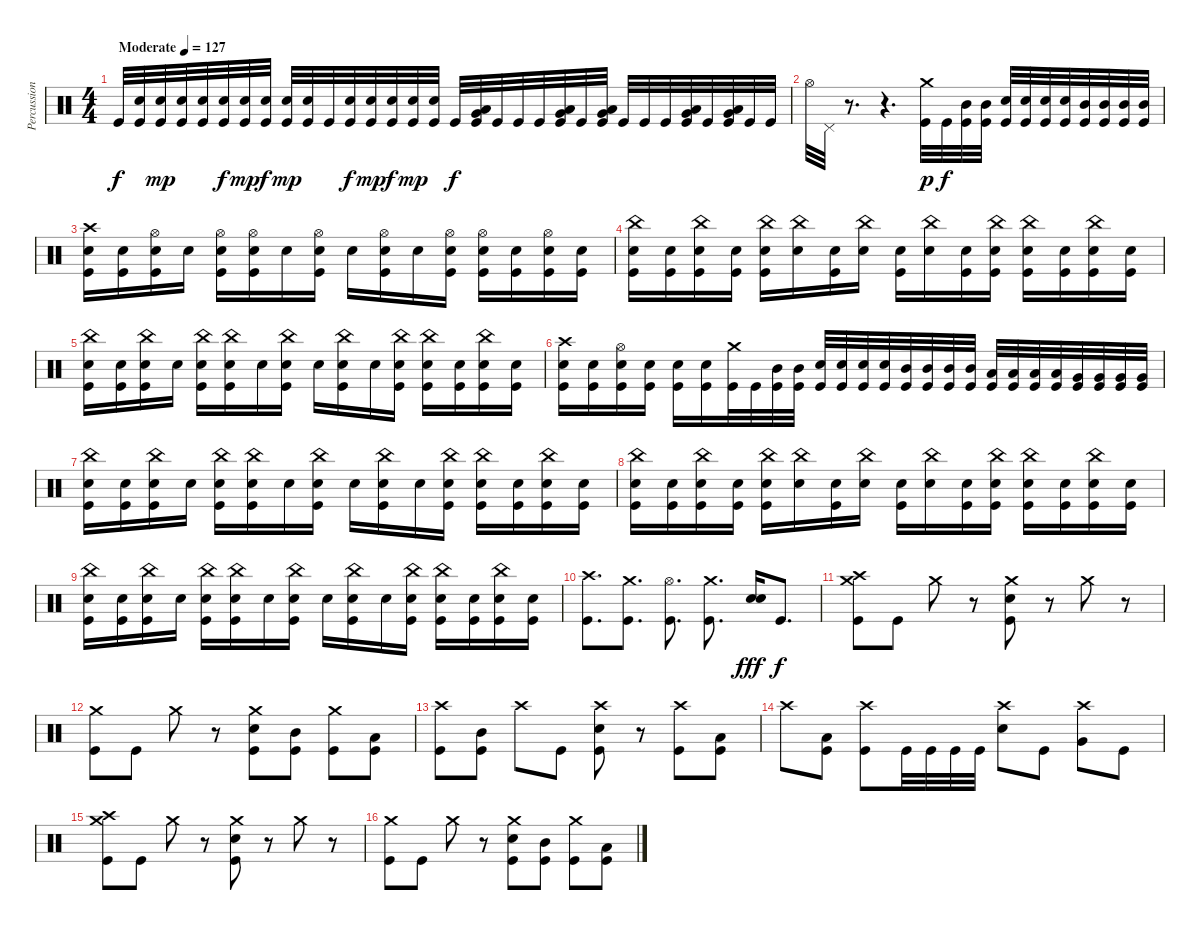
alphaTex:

\track ("Percussion" "Percussion") {instrument percussion}
\staff {score}
\articulation defaults
\ts (4 4)
\tempo (127 "Moderate")
\clef neutral
\ks c "Kick (hit)".32{dy f}
("Snare (hit) 2" "Kick (hit)").32 ("Snare (hit) 2" "Kick (hit)").32{dy mp} ("Snare (hit) 2" "Kick (hit)").32 ("Snare (hit) 2" "Kick (hit)").32 ("Snare (hit) 2" "Kick (hit)").32{dy f} ("Snare (hit) 2" "Kick (hit)").32{dy mp} ("Snare (hit) 2" "Kick (hit)").32{dy f} ("Snare (hit) 2" "Kick (hit)").32{dy mp} ("Snare (hit) 2" "Kick (hit)").32 "Kick (hit)".32 ("Snare (hit) 2" "Kick (hit)").32{dy f} ("Snare (hit) 2" "Kick (hit)").32{dy mp} ("Snare (hit) 2" "Kick (hit)").32{dy f} ("Snare (hit) 2" "Kick (hit)").32{dy mp} ("Snare (hit) 2" "Kick (hit)").32 "Kick (hit)".32{dy f} ("Very Low Tom (hit)" "Low Floor Tom (hit)" "Kick (hit)").32 "Kick (hit)".32 "Kick (hit)".32 "Kick (hit)".32 ("Very Low Tom (hit)" "Low Floor Tom (hit)" "Kick (hit)").32 "Kick (hit)".32 ("Very Low Tom (hit)" "Low Floor Tom (hit)" "Kick (hit)").32 "Kick (hit)".32 "Kick (hit)".32 "Kick (hit)".32 ("Very Low Tom (hit)" "Low Floor Tom (hit)" "Kick (hit)").32 "Kick (hit)".32 ("Very Low Tom (hit)" "Low Floor Tom (hit)" "Kick (hit)").32 "Kick (hit)".32 "Kick (hit)".32 |
"Hi-Hat (open)".32 "Pedal Hi-Hat (hit)".32 r.8{d} r.4{d} ("Crash medium (hit)" "Kick (hit)").32{dy p} "Kick (hit)".32{dy f} ("Mid Tom (hit)" "Kick (hit)").32 ("Mid Tom (hit)" "Kick (hit)").32 ("Snare (hit) 2" "Kick (hit)").32 ("Snare (hit) 2" "Kick (hit)").32 ("Snare (hit) 2" "Kick (hit)").32 ("Snare (hit) 2" "Kick (hit)").32 ("Mid Tom (hit)" "Kick (hit)").32 ("Mid Tom (hit)" "Kick (hit)").32 ("Mid Tom (hit)" "Kick (hit)").32 ("Mid Tom (hit)" "Kick (hit)").32 |
("Crash high (hit)" "Snare (hit) 2" "Kick (hit)").16 ("Snare (hit) 2" "Kick (hit)").16 ("Hi-Hat (open)" "Snare (hit) 2" "Kick (hit)").16 "Snare (hit) 2".16 ("Hi-Hat (open)" "Snare (hit) 2" "Kick (hit)").16 ("Hi-Hat (open)" "Snare (hit) 2" "Kick (hit)").16 "Snare (hit) 2".16 ("Hi-Hat (open)" "Snare (hit) 2" "Kick (hit)").16 "Snare (hit) 2".16 ("Hi-Hat (open)" "Snare (hit) 2" "Kick (hit)").16 "Snare (hit) 2".16 ("Hi-Hat (open)" "Snare (hit) 2" "Kick (hit)").16 ("Hi-Hat (open)" "Snare (hit) 2" "Kick (hit)").16 ("Snare (hit) 2" "Kick (hit)").16 ("Hi-Hat (open)" "Snare (hit) 2" "Kick (hit)").16 ("Snare (hit) 2" "Kick (hit)").16 |
("China (hit)" "Snare (hit) 2" "Kick (hit)").16 ("Snare (hit) 2" "Kick (hit)").16 ("China (hit)" "Snare (hit) 2" "Kick (hit)").16 ("Snare (hit) 2" "Kick (hit)").16 ("China (hit)" "Snare (hit) 2" "Kick (hit)").16 ("China (hit)" "Snare (hit) 2").16 ("Snare (hit) 2" "Kick (hit)").16 ("China (hit)" "Snare (hit) 2").16 ("Snare (hit) 2" "Kick (hit)").16 ("China (hit)" "Snare (hit) 2").16 ("Snare (hit) 2" "Kick (hit)").16 ("China (hit)" "Snare (hit) 2" "Kick (hit)").16 ("China (hit)" "Snare (hit) 2" "Kick (hit)").16 ("Snare (hit) 2" "Kick (hit)").16 ("China (hit)" "Snare (hit) 2" "Kick (hit)").16 ("Snare (hit) 2" "Kick (hit)").16 |
("China (hit)" "Snare (hit) 2" "Kick (hit)").16 ("Snare (hit) 2" "Kick (hit)").16 ("China (hit)" "Snare (hit) 2" "Kick (hit)").16 "Snare (hit) 2".16 ("China (hit)" "Snare (hit) 2" "Kick (hit)").16 ("China (hit)" "Snare (hit) 2" "Kick (hit)").16 "Snare (hit) 2".16 ("China (hit)" "Snare (hit) 2" "Kick (hit)").16 "Snare (hit) 2".16 ("China (hit)" "Snare (hit) 2" "Kick (hit)").16 "Snare (hit) 2".16 ("China (hit)" "Snare (hit) 2" "Kick (hit)").16 ("China (hit)" "Snare (hit) 2" "Kick (hit)").16 ("Snare (hit) 2" "Kick (hit)").16 ("China (hit)" "Snare (hit) 2" "Kick (hit)").16 ("Snare (hit) 2" "Kick (hit)").16 |
("Crash high (hit)" "Snare (hit) 2" "Kick (hit)").16 ("Snare (hit) 2" "Kick (hit)").16 ("Hi-Hat (open)" "Snare (hit) 2" "Kick (hit)").16 ("Snare (hit) 2" "Kick (hit)").16 ("Snare (hit) 2" "Kick (hit)").16 ("Snare (hit) 2" "Kick (hit)").16 ("Crash medium (hit)" "Kick (hit)").32 "Kick (hit)".32 ("Mid Tom (hit)" "Kick (hit)").32 ("Mid Tom (hit)" "Kick (hit)").32 ("Snare (hit) 2" "Kick (hit)").32 ("Snare (hit) 2" "Kick (hit)").32 ("Snare (hit) 2" "Kick (hit)").32 ("Snare (hit) 2" "Kick (hit)").32 ("Mid Tom (hit)" "Kick (hit)").32 ("Mid Tom (hit)" "Kick (hit)").32 ("Mid Tom (hit)" "Kick (hit)").32 ("Mid Tom (hit)" "Kick (hit)").32 ("Low Tom (hit)" "Kick (hit)").32 ("Low Tom (hit)" "Kick (hit)").32 ("Low Tom (hit)" "Kick (hit)").32 ("Low Tom (hit)" "Kick (hit)").32 ("Very Low Tom (hit)" "Kick (hit)").32 ("Very Low Tom (hit)" "Kick (hit)").32 ("Very Low Tom (hit)" "Kick (hit)").32 ("Very Low Tom (hit)" "Kick (hit)").32 |
("China (hit)" "Snare (hit) 2" "Kick (hit)").16 ("Snare (hit) 2" "Kick (hit)").16 ("China (hit)" "Snare (hit) 2" "Kick (hit)").16 "Snare (hit) 2".16 ("China (hit)" "Snare (hit) 2" "Kick (hit)").16 ("China (hit)" "Snare (hit) 2" "Kick (hit)").16 "Snare (hit) 2".16 ("China (hit)" "Snare (hit) 2" "Kick (hit)").16 "Snare (hit) 2".16 ("China (hit)" "Snare (hit) 2" "Kick (hit)").16 "Snare (hit) 2".16 ("China (hit)" "Snare (hit) 2" "Kick (hit)").16 ("China (hit)" "Snare (hit) 2" "Kick (hit)").16 ("Snare (hit) 2" "Kick (hit)").16 ("China (hit)" "Snare (hit) 2" "Kick (hit)").16 ("Snare (hit) 2" "Kick (hit)").16 |
("China (hit)" "Snare (hit) 2" "Kick (hit)").16 ("Snare (hit) 2" "Kick (hit)").16 ("China (hit)" "Snare (hit) 2" "Kick (hit)").16 ("Snare (hit) 2" "Kick (hit)").16 ("China (hit)" "Snare (hit) 2" "Kick (hit)").16 ("China (hit)" "Snare (hit) 2").16 ("Snare (hit) 2" "Kick (hit)").16 ("China (hit)" "Snare (hit) 2").16 ("Snare (hit) 2" "Kick (hit)").16 ("China (hit)" "Snare (hit) 2").16 ("Snare (hit) 2" "Kick (hit)").16 ("China (hit)" "Snare (hit) 2" "Kick (hit)").16 ("China (hit)" "Snare (hit) 2" "Kick (hit)").16 ("Snare (hit) 2" "Kick (hit)").16 ("China (hit)" "Snare (hit) 2" "Kick (hit)").16 ("Snare (hit) 2" "Kick (hit)").16 |
("China (hit)" "Snare (hit) 2" "Kick (hit)").16 ("Snare (hit) 2" "Kick (hit)").16 ("China (hit)" "Snare (hit) 2" "Kick (hit)").16 "Snare (hit) 2".16 ("China (hit)" "Snare (hit) 2" "Kick (hit)").16 ("China (hit)" "Snare (hit) 2" "Kick (hit)").16 "Snare (hit) 2".16 ("China (hit)" "Snare (hit) 2" "Kick (hit)").16 "Snare (hit) 2".16 ("China (hit)" "Snare (hit) 2" "Kick (hit)").16 "Snare (hit) 2".16 ("China (hit)" "Snare (hit) 2" "Kick (hit)").16 ("China (hit)" "Snare (hit) 2" "Kick (hit)").16 ("Snare (hit) 2" "Kick (hit)").16 ("China (hit)" "Snare (hit) 2" "Kick (hit)").16 ("Snare (hit) 2" "Kick (hit)").16 |
("Crash high (hit)" "Kick (hit)").8{d} ("Crash medium (hit)" "Kick (hit)").8{d} ("Hi-Hat (open)" "Kick (hit)").8{d} ("Crash medium (hit)" "Kick (hit)").8{d} ("Snare (hit) 2" "Snare (hit) 2").16{dy fff} "Kick (hit)".8{d dy f} |
("Crash high (hit)" "Crash medium (hit)" "Kick (hit)").8 "Kick (hit)".8 "Crash medium (hit)".8 r.8 ("Crash medium (hit)" "Snare (hit) 2" "Kick (hit)").8 r.8 "Crash medium (hit)".8 r.8 |
("Crash medium (hit)" "Kick (hit)").8 "Kick (hit)".8 "Crash medium (hit)".8 r.8 ("Crash medium (hit)" "Snare (hit) 2" "Kick (hit)").8 ("Mid Tom (hit)" "Kick (hit)").8 ("Crash medium (hit)" "Kick (hit)").8 ("Low Tom (hit)" "Kick (hit)").8 |
("Crash high (hit)" "Kick (hit)").8 ("Mid Tom (hit)" "Kick (hit)").8 "Crash high (hit)".8 "Kick (hit)".8 ("Crash high (hit)" "Snare (hit) 2" "Kick (hit)").8 r.8 ("Crash high (hit)" "Kick (hit)").8 ("Low Tom (hit)" "Kick (hit)").8 |
"Crash high (hit)".8 ("Low Tom (hit)" "Kick (hit)").8 ("Crash high (hit)" "Kick (hit)").8 "Kick (hit)".32 "Kick (hit)".32 "Kick (hit)".32 "Kick (hit)".32 ("Crash high (hit)" "Snare (hit) 2").8 "Kick (hit)".8 ("Crash high (hit)" "Very Low Tom (hit)").8 "Kick (hit)".8 |
("Crash high (hit)" "Crash medium (hit)" "Kick (hit)").8 "Kick (hit)".8 "Crash medium (hit)".8 r.8 ("Crash medium (hit)" "Snare (hit) 2" "Kick (hit)").8 r.8 "Crash medium (hit)".8 r.8 |
("Crash medium (hit)" "Kick (hit)").8 "Kick (hit)".8 "Crash medium (hit)".8 r.8 ("Crash medium (hit)" "Snare (hit) 2" "Kick (hit)").8 ("Mid Tom (hit)" "Kick (hit)").8 ("Crash medium (hit)" "Kick (hit)").8 ("Low Tom (hit)" "Kick (hit)").8
